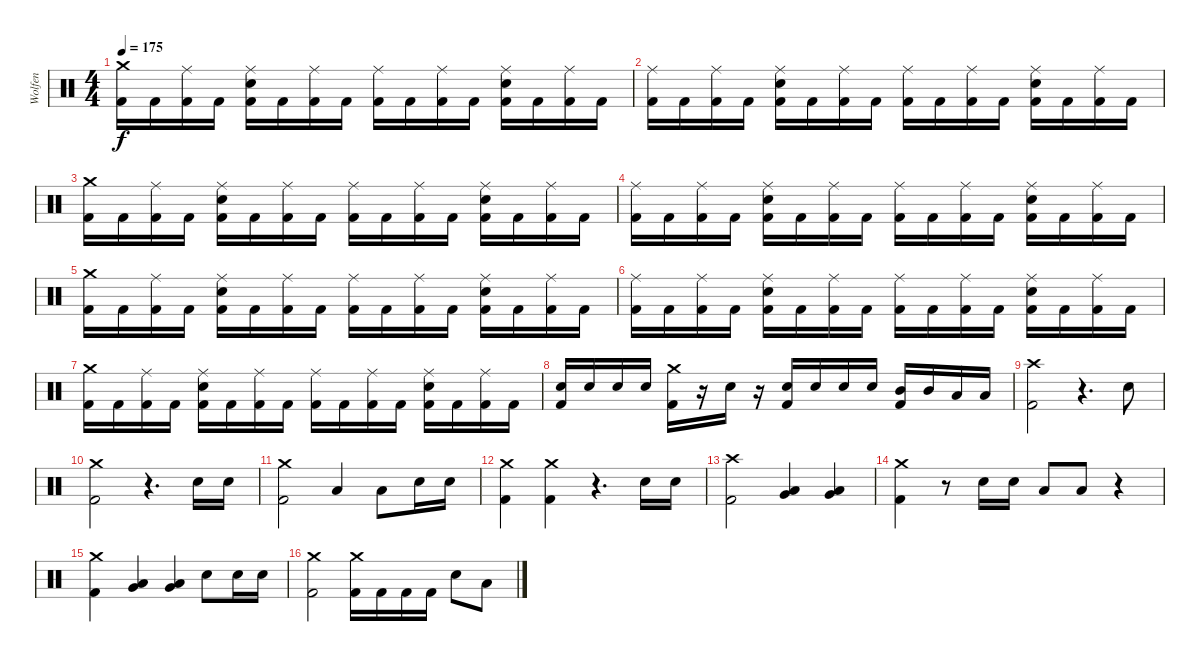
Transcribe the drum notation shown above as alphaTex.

\track ("Wolfen" "Wolfen") {instrument percussion}
\staff {score}
\articulation defaults
\ts (4 4)
\tempo 175
\clef neutral
\ks c
("Crash medium (hit)" "Kick (hit) 2").16{dy f} "Kick (hit) 2".16 ("Ride (middle)" "Kick (hit) 2").16 "Kick (hit) 2".16 ("Ride (middle)" "Electric Snare (hit)" "Kick (hit) 2").16 "Kick (hit) 2".16 ("Ride (middle)" "Kick (hit) 2").16 "Kick (hit) 2".16 ("Ride (middle)" "Kick (hit) 2").16 "Kick (hit) 2".16 ("Ride (middle)" "Kick (hit) 2").16 "Kick (hit) 2".16 ("Ride (middle)" "Electric Snare (hit)" "Kick (hit) 2").16 "Kick (hit) 2".16 ("Ride (middle)" "Kick (hit) 2").16 "Kick (hit) 2".16 |
("Ride (middle)" "Kick (hit) 2").16 "Kick (hit) 2".16 ("Ride (middle)" "Kick (hit) 2").16 "Kick (hit) 2".16 ("Ride (middle)" "Electric Snare (hit)" "Kick (hit) 2").16 "Kick (hit) 2".16 ("Ride (middle)" "Kick (hit) 2").16 "Kick (hit) 2".16 ("Ride (middle)" "Kick (hit) 2").16 "Kick (hit) 2".16 ("Ride (middle)" "Kick (hit) 2").16 "Kick (hit) 2".16 ("Ride (middle)" "Electric Snare (hit)" "Kick (hit) 2").16 "Kick (hit) 2".16 ("Ride (middle)" "Kick (hit) 2").16 "Kick (hit) 2".16 |
("Crash medium (hit)" "Kick (hit) 2").16 "Kick (hit) 2".16 ("Ride (middle)" "Kick (hit) 2").16 "Kick (hit) 2".16 ("Ride (middle)" "Electric Snare (hit)" "Kick (hit) 2").16 "Kick (hit) 2".16 ("Ride (middle)" "Kick (hit) 2").16 "Kick (hit) 2".16 ("Ride (middle)" "Kick (hit) 2").16 "Kick (hit) 2".16 ("Ride (middle)" "Kick (hit) 2").16 "Kick (hit) 2".16 ("Ride (middle)" "Electric Snare (hit)" "Kick (hit) 2").16 "Kick (hit) 2".16 ("Ride (middle)" "Kick (hit) 2").16 "Kick (hit) 2".16 |
("Ride (middle)" "Kick (hit) 2").16 "Kick (hit) 2".16 ("Ride (middle)" "Kick (hit) 2").16 "Kick (hit) 2".16 ("Ride (middle)" "Electric Snare (hit)" "Kick (hit) 2").16 "Kick (hit) 2".16 ("Ride (middle)" "Kick (hit) 2").16 "Kick (hit) 2".16 ("Ride (middle)" "Kick (hit) 2").16 "Kick (hit) 2".16 ("Ride (middle)" "Kick (hit) 2").16 "Kick (hit) 2".16 ("Ride (middle)" "Electric Snare (hit)" "Kick (hit) 2").16 "Kick (hit) 2".16 ("Ride (middle)" "Kick (hit) 2").16 "Kick (hit) 2".16 |
("Crash medium (hit)" "Kick (hit) 2").16 "Kick (hit) 2".16 ("Ride (middle)" "Kick (hit) 2").16 "Kick (hit) 2".16 ("Ride (middle)" "Electric Snare (hit)" "Kick (hit) 2").16 "Kick (hit) 2".16 ("Ride (middle)" "Kick (hit) 2").16 "Kick (hit) 2".16 ("Ride (middle)" "Kick (hit) 2").16 "Kick (hit) 2".16 ("Ride (middle)" "Kick (hit) 2").16 "Kick (hit) 2".16 ("Ride (middle)" "Electric Snare (hit)" "Kick (hit) 2").16 "Kick (hit) 2".16 ("Ride (middle)" "Kick (hit) 2").16 "Kick (hit) 2".16 |
("Ride (middle)" "Kick (hit) 2").16 "Kick (hit) 2".16 ("Ride (middle)" "Kick (hit) 2").16 "Kick (hit) 2".16 ("Ride (middle)" "Electric Snare (hit)" "Kick (hit) 2").16 "Kick (hit) 2".16 ("Ride (middle)" "Kick (hit) 2").16 "Kick (hit) 2".16 ("Ride (middle)" "Kick (hit) 2").16 "Kick (hit) 2".16 ("Ride (middle)" "Kick (hit) 2").16 "Kick (hit) 2".16 ("Ride (middle)" "Electric Snare (hit)" "Kick (hit) 2").16 "Kick (hit) 2".16 ("Ride (middle)" "Kick (hit) 2").16 "Kick (hit) 2".16 |
("Crash medium (hit)" "Kick (hit) 2").16 "Kick (hit) 2".16 ("Ride (middle)" "Kick (hit) 2").16 "Kick (hit) 2".16 ("Ride (middle)" "Electric Snare (hit)" "Kick (hit) 2").16 "Kick (hit) 2".16 ("Ride (middle)" "Kick (hit) 2").16 "Kick (hit) 2".16 ("Ride (middle)" "Kick (hit) 2").16 "Kick (hit) 2".16 ("Ride (middle)" "Kick (hit) 2").16 "Kick (hit) 2".16 ("Ride (middle)" "Electric Snare (hit)" "Kick (hit) 2").16 "Kick (hit) 2".16 ("Ride (middle)" "Kick (hit) 2").16 "Kick (hit) 2".16 |
("Electric Snare (hit)" "Kick (hit) 2").16 "Electric Snare (hit)".16 "Electric Snare (hit)".16 "Electric Snare (hit)".16 ("Crash medium (hit)" "Kick (hit) 2").16 r.16 "Electric Snare (hit)".16 r.16 ("Electric Snare (hit)" "Kick (hit) 2").16 "Electric Snare (hit)".16 "Electric Snare (hit)".16 "Electric Snare (hit)".16 ("Mid Tom (hit)" "Kick (hit) 2").16 "Mid Tom (hit)".16 "Low Tom (hit)".16 "Low Tom (hit)".16 |
("Crash high (hit)" "Kick (hit) 2").2 r.4{d} "Electric Snare (hit)".8 |
("Crash medium (hit)" "Kick (hit) 2").2 r.4{d} "Electric Snare (hit)".16 "Electric Snare (hit)".16 |
("Crash medium (hit)" "Kick (hit) 2").2 "Low Tom (hit)".4 "Low Tom (hit)".8 "Electric Snare (hit)".16 "Electric Snare (hit)".16 |
("Crash medium (hit)" "Kick (hit) 2").4 ("Crash medium (hit)" "Kick (hit) 2").4 r.4{d} "Electric Snare (hit)".16 "Electric Snare (hit)".16 |
("Crash high (hit)" "Kick (hit) 2").2 ("Very Low Tom (hit)" "Low Tom (hit)").4 ("Very Low Tom (hit)" "Low Tom (hit)").4 |
("Crash medium (hit)" "Kick (hit) 2").4 r.8 "Electric Snare (hit)".16 "Electric Snare (hit)".16 "Low Tom (hit)".8 "Low Tom (hit)".8 r.4 |
("Crash medium (hit)" "Kick (hit) 2").4 ("Very Low Tom (hit)" "Low Tom (hit)").4 ("Very Low Tom (hit)" "Low Tom (hit)").4 "Electric Snare (hit)".8 "Electric Snare (hit)".16 "Electric Snare (hit)".16 |
("Crash medium (hit)" "Kick (hit) 2").2 ("Crash medium (hit)" "Kick (hit) 2").16 "Kick (hit) 2".16 "Kick (hit) 2".16 "Kick (hit) 2".16 "Electric Snare (hit)".8 "Low Tom (hit)".8
